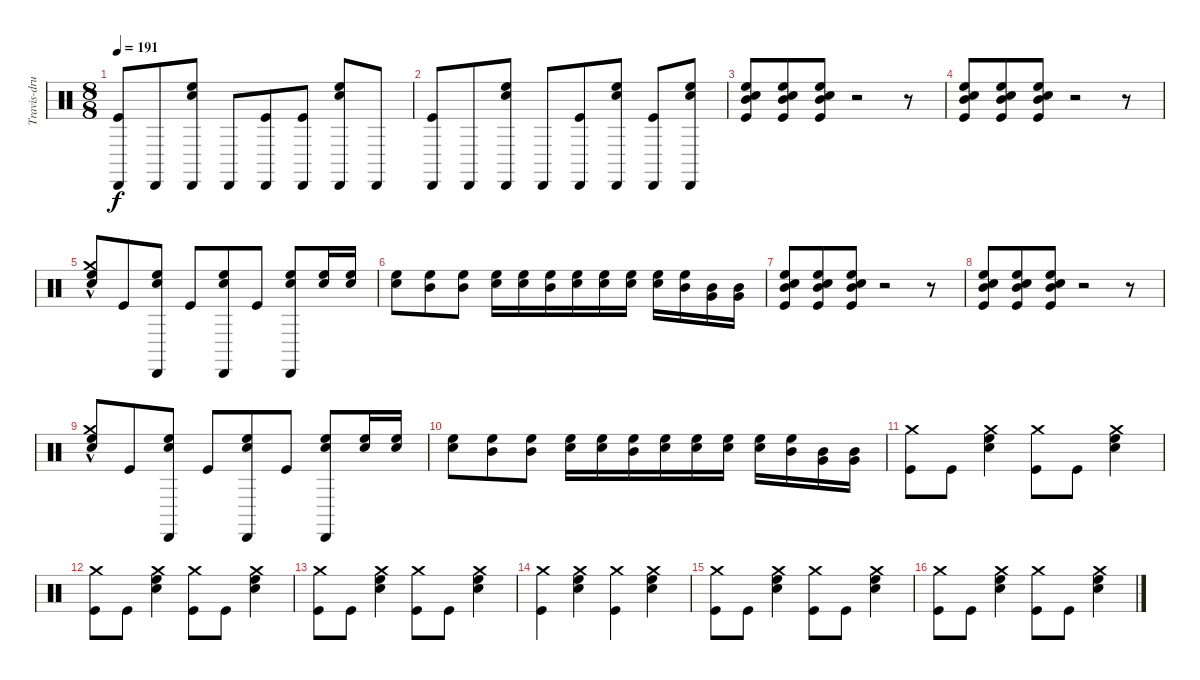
\track ("Travis-drums" "Travis-dru") {instrument percussion}
\staff {score}
\articulation defaults
\ts (8 8)
\tempo 191
\clef neutral
\ks c
("Cabasa (hit)" "Kick (hit)").8{dy f} "Cabasa (hit)".8 ("High Floor Tom (hit)" "Electric Snare (hit)" "Cabasa (hit)").8 "Cabasa (hit)".8 ("Cabasa (hit)" "Kick (hit)").8 ("Kick (hit)" "Cabasa (hit)").8 ("High Floor Tom (hit)" "Electric Snare (hit)" "Cabasa (hit)").8 "Cabasa (hit)".8 |
("Cabasa (hit)" "Kick (hit)").8 "Cabasa (hit)".8 ("High Floor Tom (hit)" "Electric Snare (hit)" "Cabasa (hit)").8 "Cabasa (hit)".8 ("Kick (hit)" "Cabasa (hit)").8 ("High Floor Tom (hit)" "Electric Snare (hit)" "Cabasa (hit)").8 ("Kick (hit)" "Cabasa (hit)").8 ("High Floor Tom (hit)" "Electric Snare (hit)" "Cabasa (hit)").8 |
("Kick (hit)" "Mid Tom (hit)" "High Floor Tom (hit)" "Electric Snare (hit)").8 ("Kick (hit)" "Mid Tom (hit)" "High Floor Tom (hit)" "Electric Snare (hit)").8 ("Kick (hit)" "High Floor Tom (hit)" "Mid Tom (hit)" "Electric Snare (hit)").8 r.2 r.8 |
("Kick (hit)" "Mid Tom (hit)" "High Floor Tom (hit)" "Electric Snare (hit)").8 ("Kick (hit)" "Mid Tom (hit)" "High Floor Tom (hit)" "Electric Snare (hit)").8 ("Kick (hit)" "High Floor Tom (hit)" "Mid Tom (hit)" "Electric Snare (hit)").8 r.2 r.8 |
("High Floor Tom (hit)" "Crash medium (hit)"{hac} "Electric Snare (hit)").8 "Kick (hit)".8 ("High Floor Tom (hit)" "Cabasa (hit)" "Electric Snare (hit)").8 "Kick (hit)".8 ("High Floor Tom (hit)" "Cabasa (hit)" "Electric Snare (hit)").8 "Kick (hit)".8 ("High Floor Tom (hit)" "Cabasa (hit)" "Electric Snare (hit)").8 ("High Floor Tom (hit)" "Electric Snare (hit)").16 ("High Floor Tom (hit)" "Electric Snare (hit)").16 |
("High Floor Tom (hit)" "Electric Snare (hit)").8 ("Mid Tom (hit)" "High Floor Tom (hit)").8 ("Mid Tom (hit)" "High Floor Tom (hit)").8 ("High Floor Tom (hit)" "Electric Snare (hit)").16 ("High Floor Tom (hit)" "Electric Snare (hit)").16 ("Mid Tom (hit)" "High Floor Tom (hit)").16 ("Electric Snare (hit)" "High Floor Tom (hit)").16 ("High Floor Tom (hit)" "Electric Snare (hit)").16 ("High Floor Tom (hit)" "Electric Snare (hit)").16 ("Electric Snare (hit)" "High Floor Tom (hit)").16 ("Mid Tom (hit)" "High Floor Tom (hit)").16 ("Very Low Tom (hit)" "Mid Tom (hit)").16 ("Very Low Tom (hit)" "Mid Tom (hit)").16 |
("Kick (hit)" "Mid Tom (hit)" "High Floor Tom (hit)" "Electric Snare (hit)").8 ("Kick (hit)" "Mid Tom (hit)" "High Floor Tom (hit)" "Electric Snare (hit)").8 ("Kick (hit)" "High Floor Tom (hit)" "Mid Tom (hit)" "Electric Snare (hit)").8 r.2 r.8 |
("Kick (hit)" "Mid Tom (hit)" "High Floor Tom (hit)" "Electric Snare (hit)").8 ("Kick (hit)" "Mid Tom (hit)" "High Floor Tom (hit)" "Electric Snare (hit)").8 ("Kick (hit)" "High Floor Tom (hit)" "Mid Tom (hit)" "Electric Snare (hit)").8 r.2 r.8 |
("High Floor Tom (hit)" "Crash medium (hit)"{hac} "Electric Snare (hit)").8 "Kick (hit)".8 ("High Floor Tom (hit)" "Cabasa (hit)" "Electric Snare (hit)").8 "Kick (hit)".8 ("High Floor Tom (hit)" "Cabasa (hit)" "Electric Snare (hit)").8 "Kick (hit)".8 ("High Floor Tom (hit)" "Cabasa (hit)" "Electric Snare (hit)").8 ("High Floor Tom (hit)" "Electric Snare (hit)").16 ("High Floor Tom (hit)" "Electric Snare (hit)").16 |
("High Floor Tom (hit)" "Electric Snare (hit)").8 ("Mid Tom (hit)" "High Floor Tom (hit)").8 ("Mid Tom (hit)" "High Floor Tom (hit)").8 ("High Floor Tom (hit)" "Electric Snare (hit)").16 ("High Floor Tom (hit)" "Electric Snare (hit)").16 ("Mid Tom (hit)" "High Floor Tom (hit)").16 ("Electric Snare (hit)" "High Floor Tom (hit)").16 ("High Floor Tom (hit)" "Electric Snare (hit)").16 ("High Floor Tom (hit)" "Electric Snare (hit)").16 ("Electric Snare (hit)" "High Floor Tom (hit)").16 ("Mid Tom (hit)" "High Floor Tom (hit)").16 ("Very Low Tom (hit)" "Mid Tom (hit)").16 ("Very Low Tom (hit)" "Mid Tom (hit)").16 |
("Crash medium (hit)" "Kick (hit)").8 "Kick (hit)".8 ("Crash medium (hit)" "High Floor Tom (hit)" "Electric Snare (hit)").4 ("Crash medium (hit)" "Kick (hit)").8 "Kick (hit)".8 ("Crash medium (hit)" "High Floor Tom (hit)" "Electric Snare (hit)").4 |
("Crash medium (hit)" "Kick (hit)").8 "Kick (hit)".8 ("Crash medium (hit)" "High Floor Tom (hit)" "Electric Snare (hit)").4 ("Crash medium (hit)" "Kick (hit)").8 "Kick (hit)".8 ("Crash medium (hit)" "High Floor Tom (hit)" "Electric Snare (hit)").4 |
("Crash medium (hit)" "Kick (hit)").8 "Kick (hit)".8 ("Crash medium (hit)" "High Floor Tom (hit)" "Electric Snare (hit)").4 ("Crash medium (hit)" "Kick (hit)").8 "Kick (hit)".8 ("Crash medium (hit)" "High Floor Tom (hit)" "Electric Snare (hit)").4 |
("Crash medium (hit)" "Kick (hit)").4 ("Crash medium (hit)" "High Floor Tom (hit)" "Electric Snare (hit)").4 ("Crash medium (hit)" "Kick (hit)").4 ("Crash medium (hit)" "High Floor Tom (hit)" "Electric Snare (hit)").4 |
("Crash medium (hit)" "Kick (hit)").8 "Kick (hit)".8 ("Crash medium (hit)" "High Floor Tom (hit)" "Electric Snare (hit)").4 ("Crash medium (hit)" "Kick (hit)").8 "Kick (hit)".8 ("Crash medium (hit)" "High Floor Tom (hit)" "Electric Snare (hit)").4 |
("Crash medium (hit)" "Kick (hit)").8 "Kick (hit)".8 ("Crash medium (hit)" "High Floor Tom (hit)" "Electric Snare (hit)").4 ("Crash medium (hit)" "Kick (hit)").8 "Kick (hit)".8 ("Crash medium (hit)" "High Floor Tom (hit)" "Electric Snare (hit)").4
